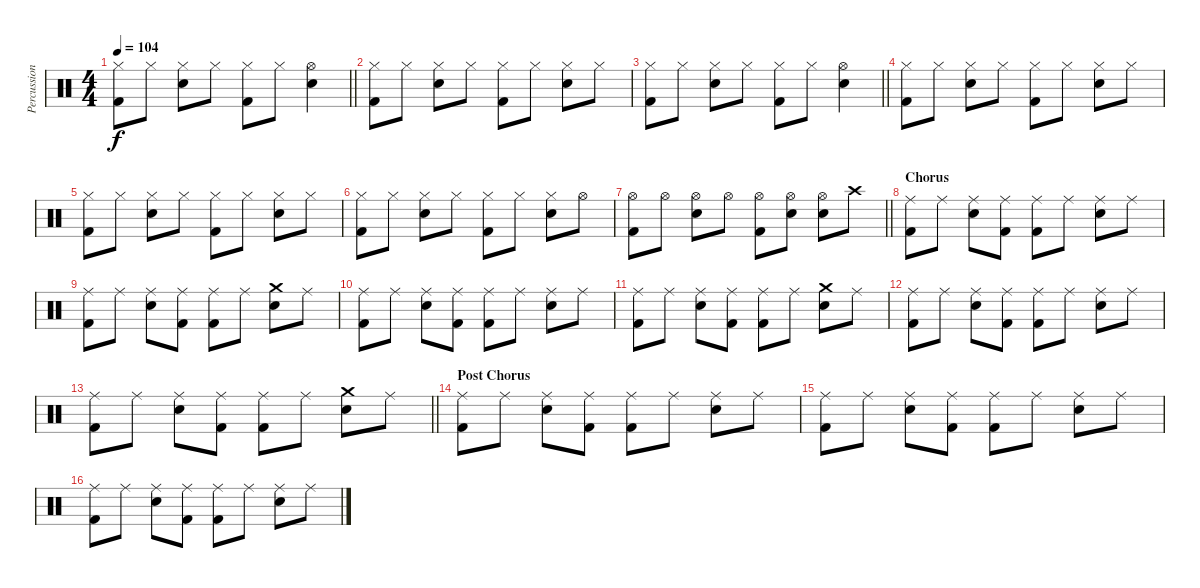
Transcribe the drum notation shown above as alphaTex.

\track ("Percussion" "Percussion") {instrument percussion}
\staff {score}
\articulation defaults
\ts (4 4)
\tempo 104
\clef neutral
\barLineRight lightlight
\ks c
("Kick (hit) 2" "Hi-Hat (closed)").8{dy f} "Hi-Hat (closed)".8 ("Hi-Hat (closed)" "Electric Snare (hit)").8 "Hi-Hat (closed)".8 ("Kick (hit) 2" "Hi-Hat (closed)").8 "Hi-Hat (closed)".8 ("Hi-Hat (open)" "Electric Snare (hit)").4 |
("Kick (hit) 2" "Hi-Hat (closed)").8 "Hi-Hat (closed)".8 ("Hi-Hat (closed)" "Electric Snare (hit)").8 "Hi-Hat (closed)".8 ("Kick (hit) 2" "Hi-Hat (closed)").8 "Hi-Hat (closed)".8 ("Hi-Hat (closed)" "Electric Snare (hit)").8 "Hi-Hat (closed)".8 |
\barLineRight lightlight
("Kick (hit) 2" "Hi-Hat (closed)").8 "Hi-Hat (closed)".8 ("Hi-Hat (closed)" "Electric Snare (hit)").8 "Hi-Hat (closed)".8 ("Kick (hit) 2" "Hi-Hat (closed)").8 "Hi-Hat (closed)".8 ("Hi-Hat (open)" "Electric Snare (hit)").4 |
("Kick (hit) 2" "Hi-Hat (closed)").8 "Hi-Hat (closed)".8 ("Hi-Hat (closed)" "Electric Snare (hit)").8 "Hi-Hat (closed)".8 ("Kick (hit) 2" "Hi-Hat (closed)").8 "Hi-Hat (closed)".8 ("Hi-Hat (closed)" "Electric Snare (hit)").8 "Hi-Hat (closed)".8 |
("Kick (hit) 2" "Hi-Hat (closed)").8 "Hi-Hat (closed)".8 ("Hi-Hat (closed)" "Electric Snare (hit)").8 "Hi-Hat (closed)".8 ("Kick (hit) 2" "Hi-Hat (closed)").8 "Hi-Hat (closed)".8 ("Hi-Hat (closed)" "Electric Snare (hit)").8 "Hi-Hat (closed)".8 |
("Kick (hit) 2" "Hi-Hat (closed)").8 "Hi-Hat (closed)".8 ("Hi-Hat (closed)" "Electric Snare (hit)").8 "Hi-Hat (closed)".8 ("Kick (hit) 2" "Hi-Hat (closed)").8 "Hi-Hat (closed)".8 ("Hi-Hat (closed)" "Electric Snare (hit)").8 "Hi-Hat (open)".8 |
\barLineRight lightlight
("Kick (hit) 2" "Hi-Hat (open)").8 "Hi-Hat (open)".8 ("Hi-Hat (open)" "Electric Snare (hit)").8 "Hi-Hat (open)".8 ("Kick (hit) 2" "Hi-Hat (open)").8 ("Hi-Hat (open)" "Electric Snare (hit)").8 ("Hi-Hat (open)" "Electric Snare (hit)").8 "Crash high (hit)".8 |
\section ("" "Chorus")
("Kick (hit) 2" "Ride (middle)").8 "Ride (middle)".8 ("Ride (middle)" "Electric Snare (hit)").8 ("Kick (hit) 2" "Ride (middle)").8 ("Kick (hit) 2" "Ride (middle)").8 "Ride (middle)".8 ("Ride (middle)" "Electric Snare (hit)").8 "Ride (middle)".8 |
("Kick (hit) 2" "Ride (middle)").8 "Ride (middle)".8 ("Ride (middle)" "Electric Snare (hit)").8 ("Kick (hit) 2" "Ride (middle)").8 ("Kick (hit) 2" "Ride (middle)").8 "Ride (middle)".8 ("Crash medium (hit)" "Electric Snare (hit)").8 "Ride (middle)".8 |
("Kick (hit) 2" "Ride (middle)").8 "Ride (middle)".8 ("Ride (middle)" "Electric Snare (hit)").8 ("Kick (hit) 2" "Ride (middle)").8 ("Kick (hit) 2" "Ride (middle)").8 "Ride (middle)".8 ("Ride (middle)" "Electric Snare (hit)").8 "Ride (middle)".8 |
("Kick (hit) 2" "Ride (middle)").8 "Ride (middle)".8 ("Ride (middle)" "Electric Snare (hit)").8 ("Kick (hit) 2" "Ride (middle)").8 ("Kick (hit) 2" "Ride (middle)").8 "Ride (middle)".8 ("Crash medium (hit)" "Electric Snare (hit)").8 "Ride (middle)".8 |
("Kick (hit) 2" "Ride (middle)").8 "Ride (middle)".8 ("Ride (middle)" "Electric Snare (hit)").8 ("Kick (hit) 2" "Ride (middle)").8 ("Kick (hit) 2" "Ride (middle)").8 "Ride (middle)".8 ("Ride (middle)" "Electric Snare (hit)").8 "Ride (middle)".8 |
\barLineRight lightlight
("Kick (hit) 2" "Ride (middle)").8 "Ride (middle)".8 ("Ride (middle)" "Electric Snare (hit)").8 ("Kick (hit) 2" "Ride (middle)").8 ("Kick (hit) 2" "Ride (middle)").8 "Ride (middle)".8 ("Crash medium (hit)" "Electric Snare (hit)").8 "Ride (middle)".8 |
\section ("" "Post Chorus")
("Kick (hit) 2" "Ride (middle)").8 "Ride (middle)".8 ("Ride (middle)" "Electric Snare (hit)").8 ("Kick (hit) 2" "Ride (middle)").8 ("Kick (hit) 2" "Ride (middle)").8 "Ride (middle)".8 ("Ride (middle)" "Electric Snare (hit)").8 "Ride (middle)".8 |
("Kick (hit) 2" "Ride (middle)").8 "Ride (middle)".8 ("Ride (middle)" "Electric Snare (hit)").8 ("Kick (hit) 2" "Ride (middle)").8 ("Kick (hit) 2" "Ride (middle)").8 "Ride (middle)".8 ("Ride (middle)" "Electric Snare (hit)").8 "Ride (middle)".8 |
("Kick (hit) 2" "Ride (middle)").8 "Ride (middle)".8 ("Ride (middle)" "Electric Snare (hit)").8 ("Kick (hit) 2" "Ride (middle)").8 ("Kick (hit) 2" "Ride (middle)").8 "Ride (middle)".8 ("Ride (middle)" "Electric Snare (hit)").8 "Ride (middle)".8
